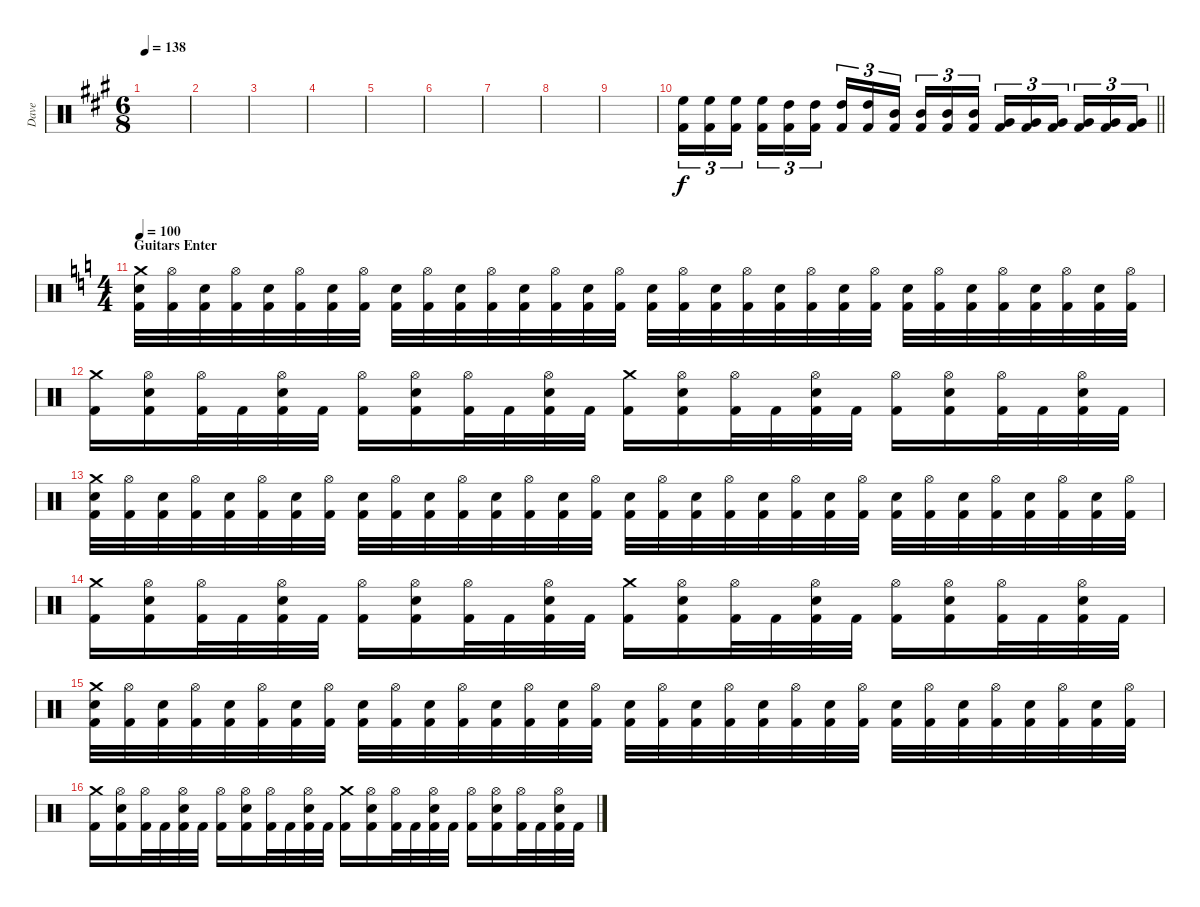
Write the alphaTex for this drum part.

\track ("Dave" "Dave") {instrument percussion}
\staff {score}
\articulation defaults
\ts (6 8)
\tempo 138
\clef neutral
\ks a
|
|
|
|
|
|
|
|
|
\barLineRight lightlight
("High Floor Tom (hit)" "Kick (hit) 2").16{tu (3 2)} ("High Floor Tom (hit)" "Kick (hit) 2").16{tu (3 2)} ("High Floor Tom (hit)" "Kick (hit) 2").16{tu (3 2) beam splitsecondary} ("High Floor Tom (hit)" "Kick (hit) 2").16{tu (3 2)} ("High Tom (hit)" "Kick (hit) 2").16{tu (3 2)} ("High Tom (hit)" "Kick (hit) 2").16{tu (3 2) beam splitsecondary} ("High Tom (hit)" "Kick (hit) 2").16{tu (3 2)} ("High Tom (hit)" "Kick (hit) 2").16{tu (3 2)} ("Mid Tom (hit)" "Kick (hit) 2").16{tu (3 2)} ("Mid Tom (hit)" "Kick (hit) 2").16{tu (3 2)} ("Mid Tom (hit)" "Kick (hit) 2").16{tu (3 2)} ("Mid Tom (hit)" "Kick (hit) 2").16{tu (3 2) beam splitsecondary} ("Very Low Tom (hit)" "Kick (hit) 2").16{tu (3 2)} ("Very Low Tom (hit)" "Kick (hit) 2").16{tu (3 2)} ("Very Low Tom (hit)" "Kick (hit) 2").16{tu (3 2) beam splitsecondary} ("Very Low Tom (hit)" "Kick (hit) 2").16{tu (3 2)} ("Very Low Tom (hit)" "Kick (hit) 2").16{tu (3 2)} ("Very Low Tom (hit)" "Kick (hit) 2").16{tu (3 2)} |
\ts (4 4)
\section ("" "Guitars Enter")
\tempo 100
\ks c
("Crash medium (hit)" "Snare (hit) 2" "Kick (hit) 2").32 ("Hi-Hat (open)" "Kick (hit) 2").32 ("Snare (hit) 2" "Kick (hit) 2").32 ("Hi-Hat (open)" "Kick (hit) 2").32 ("Snare (hit) 2" "Kick (hit) 2").32 ("Hi-Hat (open)" "Kick (hit) 2").32 ("Snare (hit) 2" "Kick (hit) 2").32 ("Hi-Hat (open)" "Kick (hit) 2").32 ("Snare (hit) 2" "Kick (hit) 2").32 ("Hi-Hat (open)" "Kick (hit) 2").32 ("Snare (hit) 2" "Kick (hit) 2").32 ("Hi-Hat (open)" "Kick (hit) 2").32 ("Snare (hit) 2" "Kick (hit) 2").32 ("Hi-Hat (open)" "Kick (hit) 2").32 ("Snare (hit) 2" "Kick (hit) 2").32 ("Hi-Hat (open)" "Kick (hit) 2").32 ("Snare (hit) 2" "Kick (hit) 2").32 ("Hi-Hat (open)" "Kick (hit) 2").32 ("Snare (hit) 2" "Kick (hit) 2").32 ("Hi-Hat (open)" "Kick (hit) 2").32 ("Snare (hit) 2" "Kick (hit) 2").32 ("Hi-Hat (open)" "Kick (hit) 2").32 ("Snare (hit) 2" "Kick (hit) 2").32 ("Hi-Hat (open)" "Kick (hit) 2").32 ("Snare (hit) 2" "Kick (hit) 2").32 ("Hi-Hat (open)" "Kick (hit) 2").32 ("Snare (hit) 2" "Kick (hit) 2").32 ("Hi-Hat (open)" "Kick (hit) 2").32 ("Snare (hit) 2" "Kick (hit) 2").32 ("Hi-Hat (open)" "Kick (hit) 2").32 ("Snare (hit) 2" "Kick (hit) 2").32 ("Hi-Hat (open)" "Kick (hit) 2").32 |
("Crash medium (hit)" "Kick (hit) 2").16 ("Hi-Hat (open)" "Snare (hit) 2" "Kick (hit) 2").16 ("Hi-Hat (open)" "Kick (hit) 2").32 "Kick (hit) 2".32 ("Hi-Hat (open)" "Snare (hit) 2" "Kick (hit) 2").32 "Kick (hit) 2".32 ("Hi-Hat (open)" "Kick (hit) 2").16 ("Hi-Hat (open)" "Snare (hit) 2" "Kick (hit) 2").16 ("Hi-Hat (open)" "Kick (hit) 2").32 "Kick (hit) 2".32 ("Hi-Hat (open)" "Snare (hit) 2" "Kick (hit) 2").32 "Kick (hit) 2".32 ("Crash medium (hit)" "Kick (hit) 2").16 ("Hi-Hat (open)" "Snare (hit) 2" "Kick (hit) 2").16 ("Hi-Hat (open)" "Kick (hit) 2").32 "Kick (hit) 2".32 ("Hi-Hat (open)" "Snare (hit) 2" "Kick (hit) 2").32 "Kick (hit) 2".32 ("Hi-Hat (open)" "Kick (hit) 2").16 ("Hi-Hat (open)" "Snare (hit) 2" "Kick (hit) 2").16 ("Hi-Hat (open)" "Kick (hit) 2").32 "Kick (hit) 2".32 ("Hi-Hat (open)" "Snare (hit) 2" "Kick (hit) 2").32 "Kick (hit) 2".32 |
("Crash medium (hit)" "Snare (hit) 2" "Kick (hit) 2").32 ("Hi-Hat (open)" "Kick (hit) 2").32 ("Snare (hit) 2" "Kick (hit) 2").32 ("Hi-Hat (open)" "Kick (hit) 2").32 ("Snare (hit) 2" "Kick (hit) 2").32 ("Hi-Hat (open)" "Kick (hit) 2").32 ("Snare (hit) 2" "Kick (hit) 2").32 ("Hi-Hat (open)" "Kick (hit) 2").32 ("Snare (hit) 2" "Kick (hit) 2").32 ("Hi-Hat (open)" "Kick (hit) 2").32 ("Snare (hit) 2" "Kick (hit) 2").32 ("Hi-Hat (open)" "Kick (hit) 2").32 ("Snare (hit) 2" "Kick (hit) 2").32 ("Hi-Hat (open)" "Kick (hit) 2").32 ("Snare (hit) 2" "Kick (hit) 2").32 ("Hi-Hat (open)" "Kick (hit) 2").32 ("Snare (hit) 2" "Kick (hit) 2").32 ("Hi-Hat (open)" "Kick (hit) 2").32 ("Snare (hit) 2" "Kick (hit) 2").32 ("Hi-Hat (open)" "Kick (hit) 2").32 ("Snare (hit) 2" "Kick (hit) 2").32 ("Hi-Hat (open)" "Kick (hit) 2").32 ("Snare (hit) 2" "Kick (hit) 2").32 ("Hi-Hat (open)" "Kick (hit) 2").32 ("Snare (hit) 2" "Kick (hit) 2").32 ("Hi-Hat (open)" "Kick (hit) 2").32 ("Snare (hit) 2" "Kick (hit) 2").32 ("Hi-Hat (open)" "Kick (hit) 2").32 ("Snare (hit) 2" "Kick (hit) 2").32 ("Hi-Hat (open)" "Kick (hit) 2").32 ("Snare (hit) 2" "Kick (hit) 2").32 ("Hi-Hat (open)" "Kick (hit) 2").32 |
("Crash medium (hit)" "Kick (hit) 2").16 ("Hi-Hat (open)" "Snare (hit) 2" "Kick (hit) 2").16 ("Hi-Hat (open)" "Kick (hit) 2").32 "Kick (hit) 2".32 ("Hi-Hat (open)" "Snare (hit) 2" "Kick (hit) 2").32 "Kick (hit) 2".32 ("Hi-Hat (open)" "Kick (hit) 2").16 ("Hi-Hat (open)" "Snare (hit) 2" "Kick (hit) 2").16 ("Hi-Hat (open)" "Kick (hit) 2").32 "Kick (hit) 2".32 ("Hi-Hat (open)" "Snare (hit) 2" "Kick (hit) 2").32 "Kick (hit) 2".32 ("Crash medium (hit)" "Kick (hit) 2").16 ("Hi-Hat (open)" "Snare (hit) 2" "Kick (hit) 2").16 ("Hi-Hat (open)" "Kick (hit) 2").32 "Kick (hit) 2".32 ("Hi-Hat (open)" "Snare (hit) 2" "Kick (hit) 2").32 "Kick (hit) 2".32 ("Hi-Hat (open)" "Kick (hit) 2").16 ("Hi-Hat (open)" "Snare (hit) 2" "Kick (hit) 2").16 ("Hi-Hat (open)" "Kick (hit) 2").32 "Kick (hit) 2".32 ("Hi-Hat (open)" "Snare (hit) 2" "Kick (hit) 2").32 "Kick (hit) 2".32 |
("Crash medium (hit)" "Snare (hit) 2" "Kick (hit) 2").32 ("Hi-Hat (open)" "Kick (hit) 2").32 ("Snare (hit) 2" "Kick (hit) 2").32 ("Hi-Hat (open)" "Kick (hit) 2").32 ("Snare (hit) 2" "Kick (hit) 2").32 ("Hi-Hat (open)" "Kick (hit) 2").32 ("Snare (hit) 2" "Kick (hit) 2").32 ("Hi-Hat (open)" "Kick (hit) 2").32 ("Snare (hit) 2" "Kick (hit) 2").32 ("Hi-Hat (open)" "Kick (hit) 2").32 ("Snare (hit) 2" "Kick (hit) 2").32 ("Hi-Hat (open)" "Kick (hit) 2").32 ("Snare (hit) 2" "Kick (hit) 2").32 ("Hi-Hat (open)" "Kick (hit) 2").32 ("Snare (hit) 2" "Kick (hit) 2").32 ("Hi-Hat (open)" "Kick (hit) 2").32 ("Snare (hit) 2" "Kick (hit) 2").32 ("Hi-Hat (open)" "Kick (hit) 2").32 ("Snare (hit) 2" "Kick (hit) 2").32 ("Hi-Hat (open)" "Kick (hit) 2").32 ("Snare (hit) 2" "Kick (hit) 2").32 ("Hi-Hat (open)" "Kick (hit) 2").32 ("Snare (hit) 2" "Kick (hit) 2").32 ("Hi-Hat (open)" "Kick (hit) 2").32 ("Snare (hit) 2" "Kick (hit) 2").32 ("Hi-Hat (open)" "Kick (hit) 2").32 ("Snare (hit) 2" "Kick (hit) 2").32 ("Hi-Hat (open)" "Kick (hit) 2").32 ("Snare (hit) 2" "Kick (hit) 2").32 ("Hi-Hat (open)" "Kick (hit) 2").32 ("Snare (hit) 2" "Kick (hit) 2").32 ("Hi-Hat (open)" "Kick (hit) 2").32 |
("Crash medium (hit)" "Kick (hit) 2").16 ("Hi-Hat (open)" "Snare (hit) 2" "Kick (hit) 2").16 ("Hi-Hat (open)" "Kick (hit) 2").32 "Kick (hit) 2".32 ("Hi-Hat (open)" "Snare (hit) 2" "Kick (hit) 2").32 "Kick (hit) 2".32 ("Hi-Hat (open)" "Kick (hit) 2").16 ("Hi-Hat (open)" "Snare (hit) 2" "Kick (hit) 2").16 ("Hi-Hat (open)" "Kick (hit) 2").32 "Kick (hit) 2".32 ("Hi-Hat (open)" "Snare (hit) 2" "Kick (hit) 2").32 "Kick (hit) 2".32 ("Crash medium (hit)" "Kick (hit) 2").16 ("Hi-Hat (open)" "Snare (hit) 2" "Kick (hit) 2").16 ("Hi-Hat (open)" "Kick (hit) 2").32 "Kick (hit) 2".32 ("Hi-Hat (open)" "Snare (hit) 2" "Kick (hit) 2").32 "Kick (hit) 2".32 ("Hi-Hat (open)" "Kick (hit) 2").16 ("Hi-Hat (open)" "Snare (hit) 2" "Kick (hit) 2").16 ("Hi-Hat (open)" "Kick (hit) 2").32 "Kick (hit) 2".32 ("Hi-Hat (open)" "Snare (hit) 2" "Kick (hit) 2").32 "Kick (hit) 2".32
